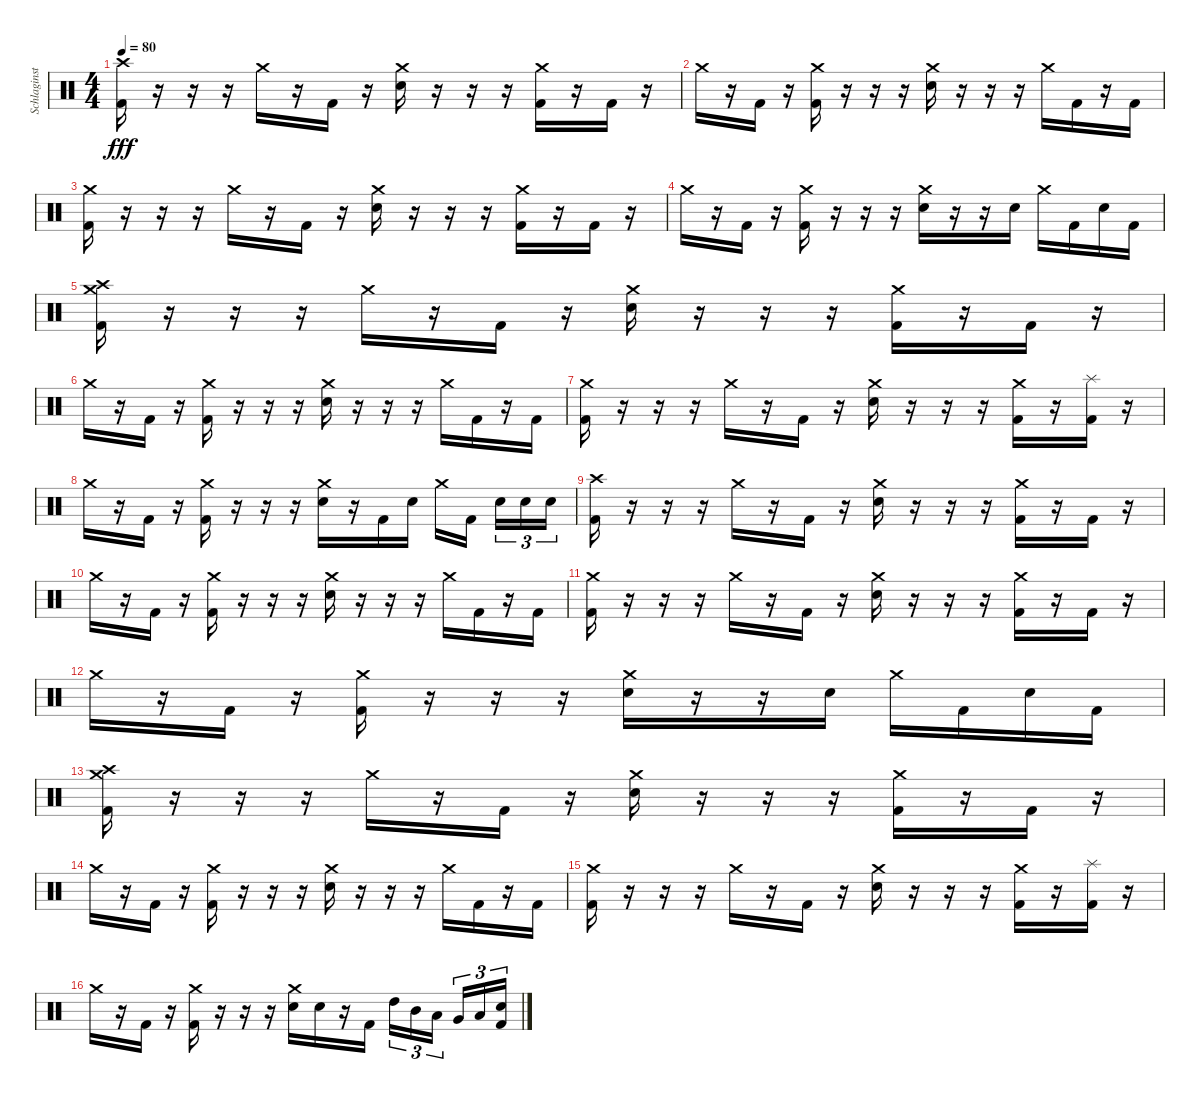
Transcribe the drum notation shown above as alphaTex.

\track ("Schlaginstrumente - Auswahl" "Schlaginst") {instrument percussion}
\staff {score}
\articulation defaults
\ts (4 4)
\tempo 80
\clef neutral
\ks c
("Crash high (hit)" "Kick (hit) 2").16{dy fff} r.16 r.16 r.16 "Crash medium (hit)".16 r.16 "Kick (hit) 2".16 r.16 ("Crash medium (hit)" "Electric Snare (hit)").16 r.16 r.16 r.16 ("Crash medium (hit)" "Kick (hit) 2").16 r.16 "Kick (hit) 2".16 r.16 |
"Crash medium (hit)".16 r.16 "Kick (hit) 2".16 r.16 ("Crash medium (hit)" "Kick (hit) 2").16 r.16 r.16 r.16 ("Crash medium (hit)" "Electric Snare (hit)").16 r.16 r.16 r.16 "Crash medium (hit)".16 "Kick (hit) 2".16 r.16 "Kick (hit) 2".16 |
("Crash medium (hit)" "Kick (hit) 2").16 r.16 r.16 r.16 "Crash medium (hit)".16 r.16 "Kick (hit) 2".16 r.16 ("Crash medium (hit)" "Electric Snare (hit)").16 r.16 r.16 r.16 ("Crash medium (hit)" "Kick (hit) 2").16 r.16 "Kick (hit) 2".16 r.16 |
"Crash medium (hit)".16 r.16 "Kick (hit) 2".16 r.16 ("Crash medium (hit)" "Kick (hit) 2").16 r.16 r.16 r.16 ("Crash medium (hit)" "Electric Snare (hit)").16 r.16 r.16 "Electric Snare (hit)".16 "Crash medium (hit)".16 "Kick (hit) 2".16 "Electric Snare (hit)".16 "Kick (hit) 2".16 |
("Crash high (hit)" "Crash medium (hit)" "Kick (hit) 2").16 r.16 r.16 r.16 "Crash medium (hit)".16 r.16 "Kick (hit) 2".16 r.16 ("Crash medium (hit)" "Electric Snare (hit)").16 r.16 r.16 r.16 ("Crash medium (hit)" "Kick (hit) 2").16 r.16 "Kick (hit) 2".16 r.16 |
"Crash medium (hit)".16 r.16 "Kick (hit) 2".16 r.16 ("Crash medium (hit)" "Kick (hit) 2").16 r.16 r.16 r.16 ("Crash medium (hit)" "Electric Snare (hit)").16 r.16 r.16 r.16 "Crash medium (hit)".16 "Kick (hit) 2".16 r.16 "Kick (hit) 2".16 |
("Crash medium (hit)" "Kick (hit) 2").16 r.16 r.16 r.16 "Crash medium (hit)".16 r.16 "Kick (hit) 2".16 r.16 ("Crash medium (hit)" "Electric Snare (hit)").16 r.16 r.16 r.16 ("Crash medium (hit)" "Kick (hit) 2").16 r.16 ("Splash (hit)" "Kick (hit) 2").16 r.16 |
"Crash medium (hit)".16 r.16 "Kick (hit) 2".16 r.16 ("Crash medium (hit)" "Kick (hit) 2").16 r.16 r.16 r.16 ("Crash medium (hit)" "Electric Snare (hit)").16 r.16 "Kick (hit) 2".16 "Electric Snare (hit)".16 "Crash medium (hit)".16 "Kick (hit) 2".16{beam splitsecondary} "Electric Snare (hit)".16{tu (3 2)} "Electric Snare (hit)".16{tu (3 2)} "Electric Snare (hit)".16{tu (3 2)} |
("Crash high (hit)" "Kick (hit) 2").16 r.16 r.16 r.16 "Crash medium (hit)".16 r.16 "Kick (hit) 2".16 r.16 ("Crash medium (hit)" "Electric Snare (hit)").16 r.16 r.16 r.16 ("Crash medium (hit)" "Kick (hit) 2").16 r.16 "Kick (hit) 2".16 r.16 |
"Crash medium (hit)".16 r.16 "Kick (hit) 2".16 r.16 ("Crash medium (hit)" "Kick (hit) 2").16 r.16 r.16 r.16 ("Crash medium (hit)" "Electric Snare (hit)").16 r.16 r.16 r.16 "Crash medium (hit)".16 "Kick (hit) 2".16 r.16 "Kick (hit) 2".16 |
("Crash medium (hit)" "Kick (hit) 2").16 r.16 r.16 r.16 "Crash medium (hit)".16 r.16 "Kick (hit) 2".16 r.16 ("Crash medium (hit)" "Electric Snare (hit)").16 r.16 r.16 r.16 ("Crash medium (hit)" "Kick (hit) 2").16 r.16 "Kick (hit) 2".16 r.16 |
"Crash medium (hit)".16 r.16 "Kick (hit) 2".16 r.16 ("Crash medium (hit)" "Kick (hit) 2").16 r.16 r.16 r.16 ("Crash medium (hit)" "Electric Snare (hit)").16 r.16 r.16 "Electric Snare (hit)".16 "Crash medium (hit)".16 "Kick (hit) 2".16 "Electric Snare (hit)".16 "Kick (hit) 2".16 |
("Crash high (hit)" "Crash medium (hit)" "Kick (hit) 2").16 r.16 r.16 r.16 "Crash medium (hit)".16 r.16 "Kick (hit) 2".16 r.16 ("Crash medium (hit)" "Electric Snare (hit)").16 r.16 r.16 r.16 ("Crash medium (hit)" "Kick (hit) 2").16 r.16 "Kick (hit) 2".16 r.16 |
"Crash medium (hit)".16 r.16 "Kick (hit) 2".16 r.16 ("Crash medium (hit)" "Kick (hit) 2").16 r.16 r.16 r.16 ("Crash medium (hit)" "Electric Snare (hit)").16 r.16 r.16 r.16 "Crash medium (hit)".16 "Kick (hit) 2".16 r.16 "Kick (hit) 2".16 |
("Crash medium (hit)" "Kick (hit) 2").16 r.16 r.16 r.16 "Crash medium (hit)".16 r.16 "Kick (hit) 2".16 r.16 ("Crash medium (hit)" "Electric Snare (hit)").16 r.16 r.16 r.16 ("Crash medium (hit)" "Kick (hit) 2").16 r.16 ("Splash (hit)" "Kick (hit) 2").16 r.16 |
"Crash medium (hit)".16 r.16 "Kick (hit) 2".16 r.16 ("Crash medium (hit)" "Kick (hit) 2").16 r.16 r.16 r.16 ("Crash medium (hit)" "Electric Snare (hit)").16 "Electric Snare (hit)".16 r.16 "Kick (hit) 2".16 "High Tom (hit)".16{tu (3 2)} "Mid Tom (hit)".16{tu (3 2)} "Low Tom (hit)".16{tu (3 2) beam splitsecondary} "Very Low Tom (hit)".16{tu (3 2)} "Low Floor Tom (hit)".16{tu (3 2)} ("Electric Snare (hit)" "Kick (hit) 2").16{tu (3 2)}
